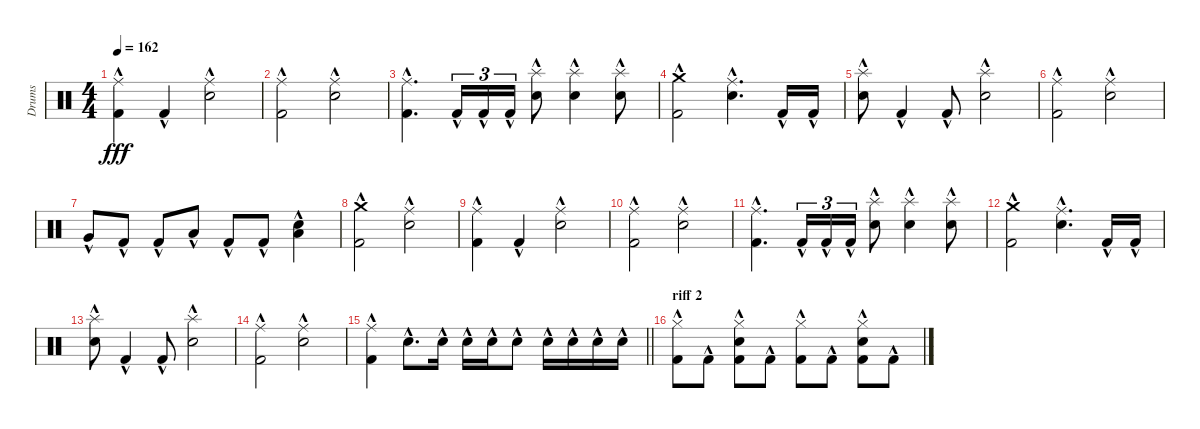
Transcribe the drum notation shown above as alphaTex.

\track ("Drums" "Drums") {instrument percussion}
\staff {score}
\articulation defaults
\ts (4 4)
\tempo 162
\clef neutral
\ks c
("Ride (middle)"{hac} "Kick (hit) 2"{hac}).4{dy fff} "Kick (hit) 2"{hac}.4 ("Ride (middle)"{hac} "Electric Snare (hit)"{hac}).2 |
("Ride (middle)"{hac} "Kick (hit) 2"{hac}).2 ("Ride (middle)"{hac} "Electric Snare (hit)"{hac}).2 |
("Ride (middle)"{hac} "Kick (hit) 2"{hac}).4{d} "Kick (hit) 2"{hac}.16{tu (3 2)} "Kick (hit) 2"{hac}.16{tu (3 2)} "Kick (hit) 2"{hac}.16{tu (3 2)} ("Electric Snare (hit)"{hac} "Splash (hit)"{hac}).8 ("Electric Snare (hit)"{hac} "Splash (hit)"{hac}).4 ("Electric Snare (hit)"{hac} "Splash (hit)"{hac}).8 |
("Kick (hit) 2"{hac} "Crash medium (hit)"{hac}).2 ("Ride (middle)"{hac} "Electric Snare (hit)"{hac}).4{d} "Kick (hit) 2"{hac}.16 "Kick (hit) 2"{hac}.16 |
("Electric Snare (hit)"{hac} "Splash (hit)"{hac}).8 "Kick (hit) 2"{hac}.4 "Kick (hit) 2"{hac}.8 ("Electric Snare (hit)"{hac} "Splash (hit)"{hac}).2 |
("Ride (middle)"{hac} "Kick (hit) 2"{hac}).2 ("Ride (middle)"{hac} "Electric Snare (hit)"{hac}).2 |
"Very Low Tom (hit)"{hac}.8 "Kick (hit) 2"{hac}.8 "Kick (hit) 2"{hac}.8 "Low Floor Tom (hit)"{hac}.8 "Kick (hit) 2"{hac}.8 "Kick (hit) 2"{hac}.8 ("Electric Snare (hit)"{hac} "Low Floor Tom (hit)"{hac}).4 |
("Kick (hit) 2"{hac} "Crash medium (hit)"{hac}).2 ("Ride (middle)"{hac} "Electric Snare (hit)"{hac}).2 |
("Ride (middle)"{hac} "Kick (hit) 2"{hac}).4 "Kick (hit) 2"{hac}.4 ("Ride (middle)"{hac} "Electric Snare (hit)"{hac}).2 |
("Ride (middle)"{hac} "Kick (hit) 2"{hac}).2 ("Ride (middle)"{hac} "Electric Snare (hit)"{hac}).2 |
("Ride (middle)"{hac} "Kick (hit) 2"{hac}).4{d} "Kick (hit) 2"{hac}.16{tu (3 2)} "Kick (hit) 2"{hac}.16{tu (3 2)} "Kick (hit) 2"{hac}.16{tu (3 2)} ("Electric Snare (hit)"{hac} "Splash (hit)"{hac}).8 ("Electric Snare (hit)"{hac} "Splash (hit)"{hac}).4 ("Electric Snare (hit)"{hac} "Splash (hit)"{hac}).8 |
("Kick (hit) 2"{hac} "Crash medium (hit)"{hac}).2 ("Ride (middle)"{hac} "Electric Snare (hit)"{hac}).4{d} "Kick (hit) 2"{hac}.16 "Kick (hit) 2"{hac}.16 |
("Electric Snare (hit)"{hac} "Splash (hit)"{hac}).8 "Kick (hit) 2"{hac}.4 "Kick (hit) 2"{hac}.8 ("Electric Snare (hit)"{hac} "Splash (hit)"{hac}).2 |
("Ride (middle)"{hac} "Kick (hit) 2"{hac}).2 ("Ride (middle)"{hac} "Electric Snare (hit)"{hac}).2 |
\barLineRight lightlight
("Ride (middle)"{hac} "Kick (hit) 2"{hac}).4 "Electric Snare (hit)"{hac}.8{d} "Electric Snare (hit)"{hac}.16 "Electric Snare (hit)"{hac}.16 "Electric Snare (hit)"{hac}.16 "Electric Snare (hit)"{hac}.8 "Electric Snare (hit)"{hac}.16 "Electric Snare (hit)"{hac}.16 "Electric Snare (hit)"{hac}.16 "Electric Snare (hit)"{hac}.16 |
\section ("" "riff 2")
("Hi-Hat (closed)"{hac} "Kick (hit) 2"{hac}).8 "Kick (hit) 2"{hac}.8 ("Hi-Hat (closed)"{hac} "Kick (hit) 2"{hac} "Electric Snare (hit)"{hac}).8 "Kick (hit) 2"{hac}.8 ("Hi-Hat (closed)"{hac} "Kick (hit) 2"{hac}).8 "Kick (hit) 2"{hac}.8 ("Hi-Hat (closed)"{hac} "Kick (hit) 2"{hac} "Electric Snare (hit)"{hac}).8 "Kick (hit) 2"{hac}.8
